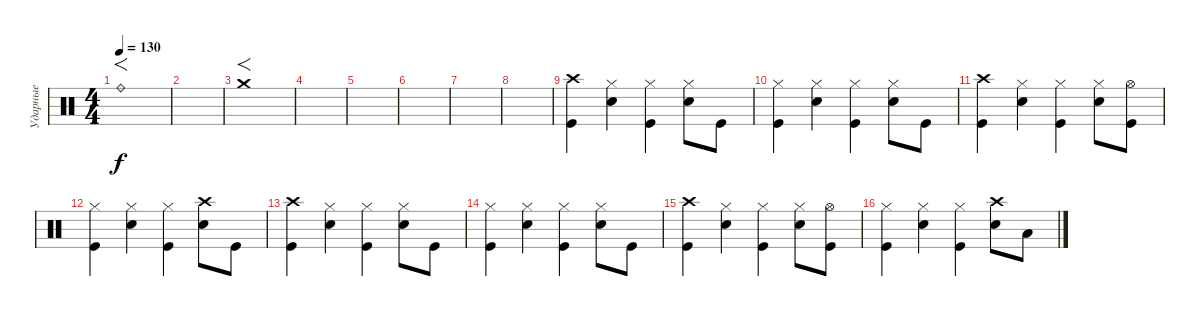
\track ("Ударные" "Ударные") {instrument percussion}
\staff {score}
\articulation defaults
\ts (4 4)
\tempo 130
\clef neutral
\ks c "Ride (bell)".1{f dy f}
|
|
"Crash medium (hit)".1{f} |
|
|
|
|
|
("Crash high (hit)" "Kick (hit)").4 ("Hi-Hat (closed)" "Electric Snare (hit)").4 ("Hi-Hat (closed)" "Kick (hit)").4 ("Hi-Hat (closed)" "Electric Snare (hit)").8 "Kick (hit)".8 |
("Hi-Hat (closed)" "Kick (hit)").4 ("Hi-Hat (closed)" "Electric Snare (hit)").4 ("Hi-Hat (closed)" "Kick (hit)").4 ("Hi-Hat (closed)" "Electric Snare (hit)").8 "Kick (hit)".8 |
("Crash high (hit)" "Kick (hit)").4 ("Hi-Hat (closed)" "Electric Snare (hit)").4 ("Hi-Hat (closed)" "Kick (hit)").4 ("Hi-Hat (closed)" "Electric Snare (hit)").8 ("Hi-Hat (open)" "Kick (hit)").8 |
("Hi-Hat (closed)" "Kick (hit)").4 ("Hi-Hat (closed)" "Electric Snare (hit)").4 ("Hi-Hat (closed)" "Kick (hit)").4 ("Crash high (hit)" "Electric Snare (hit)").8 "Kick (hit)".8 |
("Crash high (hit)" "Kick (hit)").4 ("Hi-Hat (closed)" "Electric Snare (hit)").4 ("Hi-Hat (closed)" "Kick (hit)").4 ("Hi-Hat (closed)" "Electric Snare (hit)").8 "Kick (hit)".8 |
("Hi-Hat (closed)" "Kick (hit)").4 ("Hi-Hat (closed)" "Electric Snare (hit)").4 ("Hi-Hat (closed)" "Kick (hit)").4 ("Hi-Hat (closed)" "Electric Snare (hit)").8 "Kick (hit)".8 |
("Crash high (hit)" "Kick (hit)").4 ("Hi-Hat (closed)" "Electric Snare (hit)").4 ("Hi-Hat (closed)" "Kick (hit)").4 ("Hi-Hat (closed)" "Electric Snare (hit)").8 ("Hi-Hat (open)" "Kick (hit)").8 |
("Hi-Hat (closed)" "Kick (hit)").4 ("Hi-Hat (closed)" "Electric Snare (hit)").4 ("Hi-Hat (closed)" "Kick (hit)").4 ("Crash high (hit)" "Electric Snare (hit)").8 "Low Tom (hit)".8
